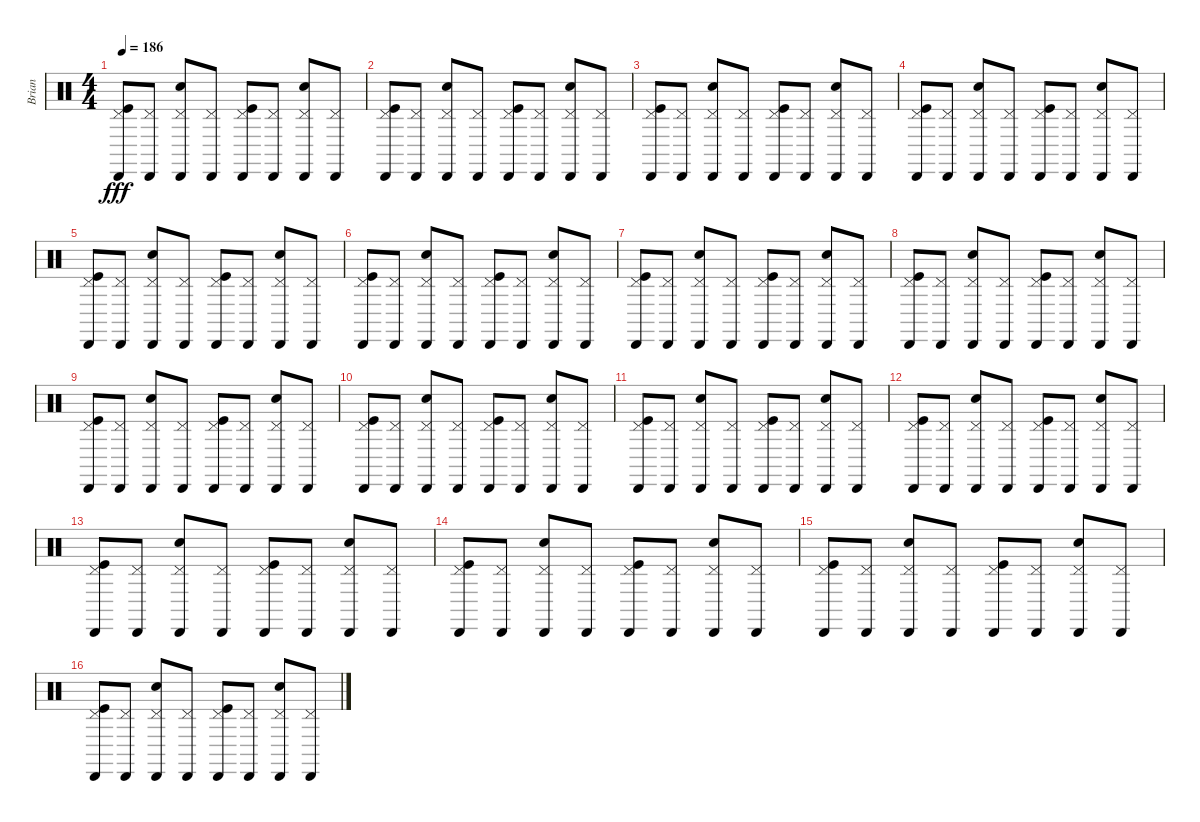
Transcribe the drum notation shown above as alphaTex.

\track ("Brian" "Brian") {instrument percussion}
\staff {score}
\articulation defaults
\ts (4 4)
\tempo 186
\clef neutral
\ks c
("Cabasa (hit)" "Pedal Hi-Hat (hit)" "Kick (hit)").8{dy fff} ("Cabasa (hit)" "Pedal Hi-Hat (hit)").8 ("Cabasa (hit)" "Pedal Hi-Hat (hit)" "Snare (hit) 2").8 ("Cabasa (hit)" "Pedal Hi-Hat (hit)").8 ("Cabasa (hit)" "Pedal Hi-Hat (hit)" "Kick (hit)").8 ("Cabasa (hit)" "Pedal Hi-Hat (hit)").8 ("Cabasa (hit)" "Pedal Hi-Hat (hit)" "Snare (hit) 2").8 ("Cabasa (hit)" "Pedal Hi-Hat (hit)").8 |
("Cabasa (hit)" "Pedal Hi-Hat (hit)" "Kick (hit)").8 ("Cabasa (hit)" "Pedal Hi-Hat (hit)").8 ("Cabasa (hit)" "Pedal Hi-Hat (hit)" "Snare (hit) 2").8 ("Cabasa (hit)" "Pedal Hi-Hat (hit)").8 ("Cabasa (hit)" "Pedal Hi-Hat (hit)" "Kick (hit)").8 ("Cabasa (hit)" "Pedal Hi-Hat (hit)").8 ("Cabasa (hit)" "Pedal Hi-Hat (hit)" "Snare (hit) 2").8 ("Cabasa (hit)" "Pedal Hi-Hat (hit)").8 |
("Cabasa (hit)" "Pedal Hi-Hat (hit)" "Kick (hit)").8 ("Cabasa (hit)" "Pedal Hi-Hat (hit)").8 ("Cabasa (hit)" "Pedal Hi-Hat (hit)" "Snare (hit) 2").8 ("Cabasa (hit)" "Pedal Hi-Hat (hit)").8 ("Cabasa (hit)" "Pedal Hi-Hat (hit)" "Kick (hit)").8 ("Cabasa (hit)" "Pedal Hi-Hat (hit)").8 ("Cabasa (hit)" "Pedal Hi-Hat (hit)" "Snare (hit) 2").8 ("Cabasa (hit)" "Pedal Hi-Hat (hit)").8 |
("Cabasa (hit)" "Pedal Hi-Hat (hit)" "Kick (hit)").8 ("Cabasa (hit)" "Pedal Hi-Hat (hit)").8 ("Cabasa (hit)" "Pedal Hi-Hat (hit)" "Snare (hit) 2").8 ("Cabasa (hit)" "Pedal Hi-Hat (hit)").8 ("Cabasa (hit)" "Pedal Hi-Hat (hit)" "Kick (hit)").8 ("Cabasa (hit)" "Pedal Hi-Hat (hit)").8 ("Cabasa (hit)" "Pedal Hi-Hat (hit)" "Snare (hit) 2").8 ("Cabasa (hit)" "Pedal Hi-Hat (hit)").8 |
("Cabasa (hit)" "Pedal Hi-Hat (hit)" "Kick (hit)").8 ("Cabasa (hit)" "Pedal Hi-Hat (hit)").8 ("Cabasa (hit)" "Pedal Hi-Hat (hit)" "Snare (hit) 2").8 ("Cabasa (hit)" "Pedal Hi-Hat (hit)").8 ("Cabasa (hit)" "Pedal Hi-Hat (hit)" "Kick (hit)").8 ("Cabasa (hit)" "Pedal Hi-Hat (hit)").8 ("Cabasa (hit)" "Pedal Hi-Hat (hit)" "Snare (hit) 2").8 ("Cabasa (hit)" "Pedal Hi-Hat (hit)").8 |
("Cabasa (hit)" "Pedal Hi-Hat (hit)" "Kick (hit)").8 ("Cabasa (hit)" "Pedal Hi-Hat (hit)").8 ("Cabasa (hit)" "Pedal Hi-Hat (hit)" "Snare (hit) 2").8 ("Cabasa (hit)" "Pedal Hi-Hat (hit)").8 ("Cabasa (hit)" "Pedal Hi-Hat (hit)" "Kick (hit)").8 ("Cabasa (hit)" "Pedal Hi-Hat (hit)").8 ("Cabasa (hit)" "Pedal Hi-Hat (hit)" "Snare (hit) 2").8 ("Cabasa (hit)" "Pedal Hi-Hat (hit)").8 |
("Cabasa (hit)" "Pedal Hi-Hat (hit)" "Kick (hit)").8 ("Cabasa (hit)" "Pedal Hi-Hat (hit)").8 ("Cabasa (hit)" "Pedal Hi-Hat (hit)" "Snare (hit) 2").8 ("Cabasa (hit)" "Pedal Hi-Hat (hit)").8 ("Cabasa (hit)" "Pedal Hi-Hat (hit)" "Kick (hit)").8 ("Cabasa (hit)" "Pedal Hi-Hat (hit)").8 ("Cabasa (hit)" "Pedal Hi-Hat (hit)" "Snare (hit) 2").8 ("Cabasa (hit)" "Pedal Hi-Hat (hit)").8 |
("Cabasa (hit)" "Pedal Hi-Hat (hit)" "Kick (hit)").8 ("Cabasa (hit)" "Pedal Hi-Hat (hit)").8 ("Cabasa (hit)" "Pedal Hi-Hat (hit)" "Snare (hit) 2").8 ("Cabasa (hit)" "Pedal Hi-Hat (hit)").8 ("Cabasa (hit)" "Pedal Hi-Hat (hit)" "Kick (hit)").8 ("Cabasa (hit)" "Pedal Hi-Hat (hit)").8 ("Cabasa (hit)" "Pedal Hi-Hat (hit)" "Snare (hit) 2").8 ("Cabasa (hit)" "Pedal Hi-Hat (hit)").8 |
("Cabasa (hit)" "Pedal Hi-Hat (hit)" "Kick (hit)").8 ("Cabasa (hit)" "Pedal Hi-Hat (hit)").8 ("Cabasa (hit)" "Pedal Hi-Hat (hit)" "Snare (hit) 2").8 ("Cabasa (hit)" "Pedal Hi-Hat (hit)").8 ("Cabasa (hit)" "Pedal Hi-Hat (hit)" "Kick (hit)").8 ("Cabasa (hit)" "Pedal Hi-Hat (hit)").8 ("Cabasa (hit)" "Pedal Hi-Hat (hit)" "Snare (hit) 2").8 ("Cabasa (hit)" "Pedal Hi-Hat (hit)").8 |
("Cabasa (hit)" "Pedal Hi-Hat (hit)" "Kick (hit)").8 ("Cabasa (hit)" "Pedal Hi-Hat (hit)").8 ("Cabasa (hit)" "Pedal Hi-Hat (hit)" "Snare (hit) 2").8 ("Cabasa (hit)" "Pedal Hi-Hat (hit)").8 ("Cabasa (hit)" "Pedal Hi-Hat (hit)" "Kick (hit)").8 ("Cabasa (hit)" "Pedal Hi-Hat (hit)").8 ("Cabasa (hit)" "Pedal Hi-Hat (hit)" "Snare (hit) 2").8 ("Cabasa (hit)" "Pedal Hi-Hat (hit)").8 |
("Cabasa (hit)" "Pedal Hi-Hat (hit)" "Kick (hit)").8 ("Cabasa (hit)" "Pedal Hi-Hat (hit)").8 ("Cabasa (hit)" "Pedal Hi-Hat (hit)" "Snare (hit) 2").8 ("Cabasa (hit)" "Pedal Hi-Hat (hit)").8 ("Cabasa (hit)" "Pedal Hi-Hat (hit)" "Kick (hit)").8 ("Cabasa (hit)" "Pedal Hi-Hat (hit)").8 ("Cabasa (hit)" "Pedal Hi-Hat (hit)" "Snare (hit) 2").8 ("Cabasa (hit)" "Pedal Hi-Hat (hit)").8 |
("Cabasa (hit)" "Pedal Hi-Hat (hit)" "Kick (hit)").8 ("Cabasa (hit)" "Pedal Hi-Hat (hit)").8 ("Cabasa (hit)" "Pedal Hi-Hat (hit)" "Snare (hit) 2").8 ("Cabasa (hit)" "Pedal Hi-Hat (hit)").8 ("Cabasa (hit)" "Pedal Hi-Hat (hit)" "Kick (hit)").8 ("Cabasa (hit)" "Pedal Hi-Hat (hit)").8 ("Cabasa (hit)" "Pedal Hi-Hat (hit)" "Snare (hit) 2").8 ("Cabasa (hit)" "Pedal Hi-Hat (hit)").8 |
("Cabasa (hit)" "Pedal Hi-Hat (hit)" "Kick (hit)").8 ("Cabasa (hit)" "Pedal Hi-Hat (hit)").8 ("Cabasa (hit)" "Pedal Hi-Hat (hit)" "Snare (hit) 2").8 ("Cabasa (hit)" "Pedal Hi-Hat (hit)").8 ("Cabasa (hit)" "Pedal Hi-Hat (hit)" "Kick (hit)").8 ("Cabasa (hit)" "Pedal Hi-Hat (hit)").8 ("Cabasa (hit)" "Pedal Hi-Hat (hit)" "Snare (hit) 2").8 ("Cabasa (hit)" "Pedal Hi-Hat (hit)").8 |
("Cabasa (hit)" "Pedal Hi-Hat (hit)" "Kick (hit)").8 ("Cabasa (hit)" "Pedal Hi-Hat (hit)").8 ("Cabasa (hit)" "Pedal Hi-Hat (hit)" "Snare (hit) 2").8 ("Cabasa (hit)" "Pedal Hi-Hat (hit)").8 ("Cabasa (hit)" "Pedal Hi-Hat (hit)" "Kick (hit)").8 ("Cabasa (hit)" "Pedal Hi-Hat (hit)").8 ("Cabasa (hit)" "Pedal Hi-Hat (hit)" "Snare (hit) 2").8 ("Cabasa (hit)" "Pedal Hi-Hat (hit)").8 |
("Cabasa (hit)" "Pedal Hi-Hat (hit)" "Kick (hit)").8 ("Cabasa (hit)" "Pedal Hi-Hat (hit)").8 ("Cabasa (hit)" "Pedal Hi-Hat (hit)" "Snare (hit) 2").8 ("Cabasa (hit)" "Pedal Hi-Hat (hit)").8 ("Cabasa (hit)" "Pedal Hi-Hat (hit)" "Kick (hit)").8 ("Cabasa (hit)" "Pedal Hi-Hat (hit)").8 ("Cabasa (hit)" "Pedal Hi-Hat (hit)" "Snare (hit) 2").8 ("Cabasa (hit)" "Pedal Hi-Hat (hit)").8 |
("Cabasa (hit)" "Pedal Hi-Hat (hit)" "Kick (hit)").8 ("Cabasa (hit)" "Pedal Hi-Hat (hit)").8 ("Cabasa (hit)" "Pedal Hi-Hat (hit)" "Snare (hit) 2").8 ("Cabasa (hit)" "Pedal Hi-Hat (hit)").8 ("Cabasa (hit)" "Pedal Hi-Hat (hit)" "Kick (hit)").8 ("Cabasa (hit)" "Pedal Hi-Hat (hit)").8 ("Cabasa (hit)" "Pedal Hi-Hat (hit)" "Snare (hit) 2").8 ("Cabasa (hit)" "Pedal Hi-Hat (hit)").8
